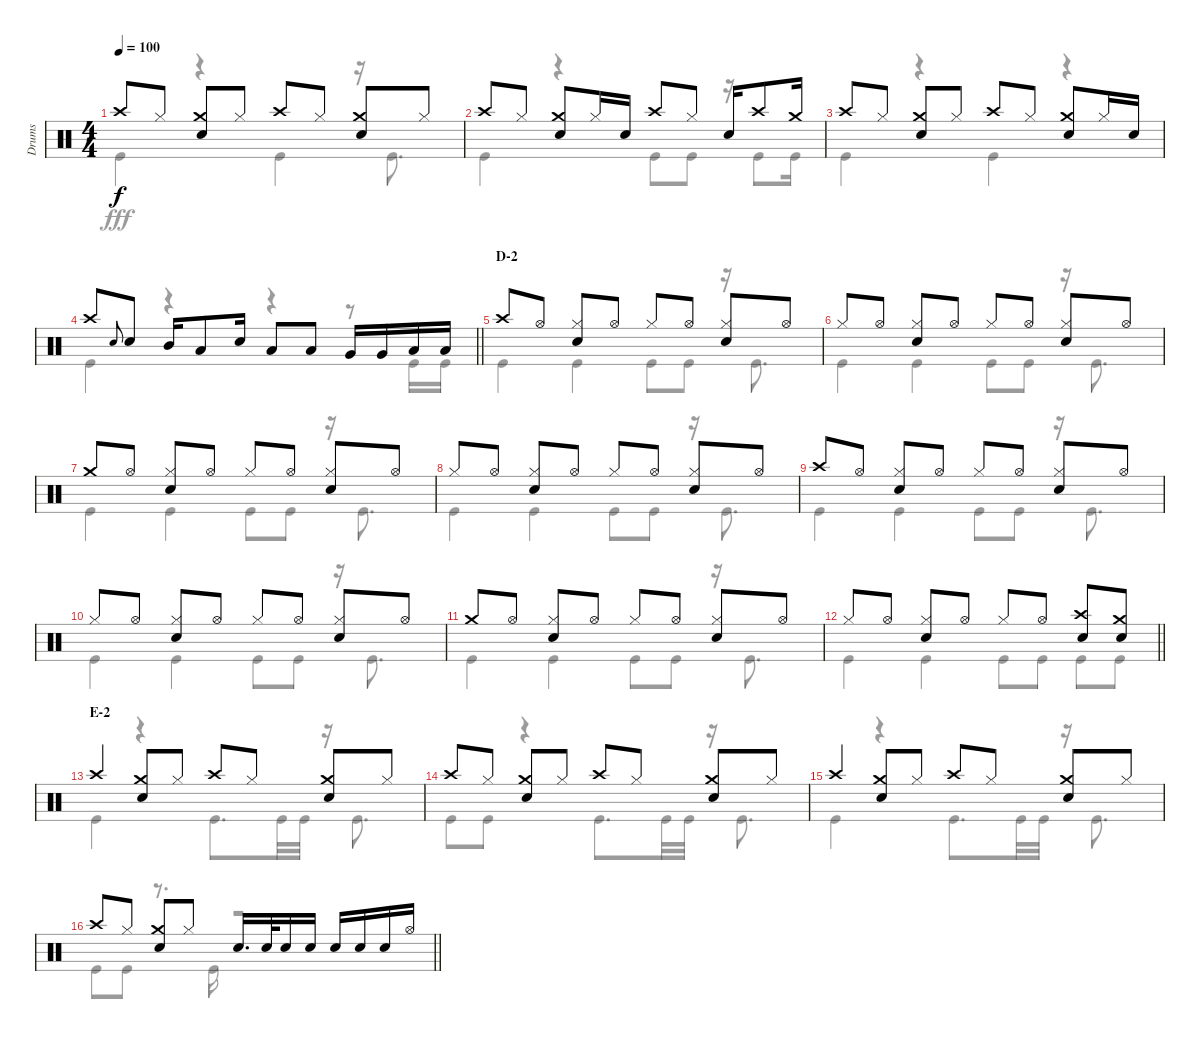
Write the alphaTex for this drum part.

\track ("Drums" "Drums") {instrument percussion}
\staff {score}
\articulation defaults
\voice
\ts (4 4)
\tempo 100
\clef neutral
\ks c "Crash high (hit)".8{dy f} "Hi-Hat (closed)".8
("Crash medium (hit)" "Snare (hit) 2").8 "Hi-Hat (closed)".8 "Crash high (hit)".8 "Hi-Hat (closed)".8 ("Crash medium (hit)" "Snare (hit) 2").8 "Hi-Hat (closed)".8 |
"Crash high (hit)".8 "Hi-Hat (closed)".8 ("Crash medium (hit)" "Snare (hit) 2").8 "Hi-Hat (closed)".16 "Snare (hit) 2".16 "Crash high (hit)".8 "Hi-Hat (closed)".8 "Snare (hit) 2".16 "Crash high (hit)".8 "Crash medium (hit)".16 |
"Crash high (hit)".8 "Hi-Hat (closed)".8 ("Crash medium (hit)" "Snare (hit) 2").8 "Hi-Hat (closed)".8 "Crash high (hit)".8 "Hi-Hat (closed)".8 ("Crash medium (hit)" "Snare (hit) 2").8 "Hi-Hat (closed)".16 "Snare (hit) 2".16 |
\barLineRight lightlight "Crash high (hit)".8 "Snare (hit) 2".8{gr onbeat} "Snare (hit) 2".8 "Mid Tom (hit)".16 "Low Tom (hit)".8 "Snare (hit) 2".16 "Low Tom (hit)".8 "Low Tom (hit)".8 "Very Low Tom (hit)".16 "Very Low Tom (hit)".16 "Low Floor Tom (hit)".16 "Low Floor Tom (hit)".16
|
\section ("" "D-2")
"Crash high (hit)".8 "Hi-Hat (open)".8 ("Hi-Hat (closed)" "Snare (hit) 2").8 "Hi-Hat (open)".8 "Hi-Hat (closed)".8 "Hi-Hat (open)".8 ("Hi-Hat (closed)" "Snare (hit) 2").8 "Hi-Hat (open)".8 |
"Hi-Hat (closed)".8 "Hi-Hat (open)".8 ("Hi-Hat (closed)" "Snare (hit) 2").8 "Hi-Hat (open)".8 "Hi-Hat (closed)".8 "Hi-Hat (open)".8 ("Hi-Hat (closed)" "Snare (hit) 2").8 "Hi-Hat (open)".8 |
"Crash medium (hit)".8 "Hi-Hat (open)".8 ("Hi-Hat (closed)" "Snare (hit) 2").8 "Hi-Hat (open)".8 "Hi-Hat (closed)".8 "Hi-Hat (open)".8 ("Hi-Hat (closed)" "Snare (hit) 2").8 "Hi-Hat (open)".8 |
"Hi-Hat (closed)".8 "Hi-Hat (open)".8 ("Hi-Hat (closed)" "Snare (hit) 2").8 "Hi-Hat (open)".8 "Hi-Hat (closed)".8 "Hi-Hat (open)".8 ("Hi-Hat (closed)" "Snare (hit) 2").8 "Hi-Hat (open)".8 |
"Crash high (hit)".8 "Hi-Hat (open)".8 ("Hi-Hat (closed)" "Snare (hit) 2").8 "Hi-Hat (open)".8 "Hi-Hat (closed)".8 "Hi-Hat (open)".8 ("Hi-Hat (closed)" "Snare (hit) 2").8 "Hi-Hat (open)".8 |
"Hi-Hat (closed)".8 "Hi-Hat (open)".8 ("Hi-Hat (closed)" "Snare (hit) 2").8 "Hi-Hat (open)".8 "Hi-Hat (closed)".8 "Hi-Hat (open)".8 ("Hi-Hat (closed)" "Snare (hit) 2").8 "Hi-Hat (open)".8 |
"Crash medium (hit)".8 "Hi-Hat (open)".8 ("Hi-Hat (closed)" "Snare (hit) 2").8 "Hi-Hat (open)".8 "Hi-Hat (closed)".8 "Hi-Hat (open)".8 ("Hi-Hat (closed)" "Snare (hit) 2").8 "Hi-Hat (open)".8 |
\barLineRight lightlight "Hi-Hat (closed)".8 "Hi-Hat (open)".8
("Hi-Hat (closed)" "Snare (hit) 2").8 "Hi-Hat (open)".8 "Hi-Hat (closed)".8 "Hi-Hat (open)".8 ("Crash high (hit)" "Snare (hit) 2").8 ("Crash medium (hit)" "Snare (hit) 2").8 |
\section ("" "E-2")
"Crash high (hit)".4 ("Crash medium (hit)" "Snare (hit) 2").8 "Hi-Hat (closed)".8 "Crash high (hit)".8 "Hi-Hat (closed)".8 ("Crash medium (hit)" "Snare (hit) 2").8 "Hi-Hat (closed)".8 |
"Crash high (hit)".8 "Hi-Hat (closed)".8 ("Crash medium (hit)" "Snare (hit) 2").8 "Hi-Hat (closed)".8 "Crash high (hit)".8 "Hi-Hat (closed)".8 ("Crash medium (hit)" "Snare (hit) 2").8 "Hi-Hat (closed)".8 |
"Crash high (hit)".4 ("Crash medium (hit)" "Snare (hit) 2").8 "Hi-Hat (closed)".8 "Crash high (hit)".8 "Hi-Hat (closed)".8 ("Crash medium (hit)" "Snare (hit) 2").8 "Hi-Hat (closed)".8 |
\barLineRight lightlight "Crash high (hit)".8 "Hi-Hat (closed)".8
("Crash medium (hit)" "Snare (hit) 2").8 "Hi-Hat (closed)".8 "Snare (hit) 2".16{d} "Snare (hit) 2".32 "Snare (hit) 2".16 "Snare (hit) 2".16 "Snare (hit) 2".16 "Snare (hit) 2".16 "Snare (hit) 2".16 "Hi-Hat (open)".16
\voice
\clef neutral
\ottava regular
\simile none
\ks c "Kick (hit)".4{dy fff}
r.4 "Kick (hit)".4 r.16 "Kick (hit)".8{d} |
"Kick (hit)".4 r.4 "Kick (hit)".8 "Kick (hit)".8 r.16 "Kick (hit)".8 "Kick (hit)".16 |
"Kick (hit)".4 r.4 "Kick (hit)".4 r.4 |
\barLineRight lightlight "Kick (hit)".4
r.4 r.4 r.8 "Kick (hit)".16 "Kick (hit)".16 |
"Kick (hit)".4 "Kick (hit)".4 "Kick (hit)".8 "Kick (hit)".8 r.16 "Kick (hit)".8{d} |
"Kick (hit)".4 "Kick (hit)".4 "Kick (hit)".8 "Kick (hit)".8 r.16 "Kick (hit)".8{d} |
"Kick (hit)".4 "Kick (hit)".4 "Kick (hit)".8 "Kick (hit)".8 r.16 "Kick (hit)".8{d} |
"Kick (hit)".4 "Kick (hit)".4 "Kick (hit)".8 "Kick (hit)".8 r.16 "Kick (hit)".8{d} |
"Kick (hit)".4 "Kick (hit)".4 "Kick (hit)".8 "Kick (hit)".8 r.16 "Kick (hit)".8{d} |
"Kick (hit)".4 "Kick (hit)".4 "Kick (hit)".8 "Kick (hit)".8 r.16 "Kick (hit)".8{d} |
"Kick (hit)".4 "Kick (hit)".4 "Kick (hit)".8 "Kick (hit)".8 r.16 "Kick (hit)".8{d} |
\barLineRight lightlight "Kick (hit)".4 "Kick (hit)".4 "Kick (hit)".8 "Kick (hit)".8 "Kick (hit)".8 "Kick (hit)".8
|
"Kick (hit)".4 r.4 "Kick (hit)".8{d} "Kick (hit)".32 "Kick (hit)".32 r.16 "Kick (hit)".8{d} |
"Kick (hit)".8 "Kick (hit)".8 r.4 "Kick (hit)".8{d} "Kick (hit)".32 "Kick (hit)".32 r.16 "Kick (hit)".8{d} |
"Kick (hit)".4 r.4 "Kick (hit)".8{d} "Kick (hit)".32 "Kick (hit)".32 r.16 "Kick (hit)".8{d} |
\barLineRight lightlight "Kick (hit)".8 "Kick (hit)".8
r.8{d} "Kick (hit)".16 r.2
